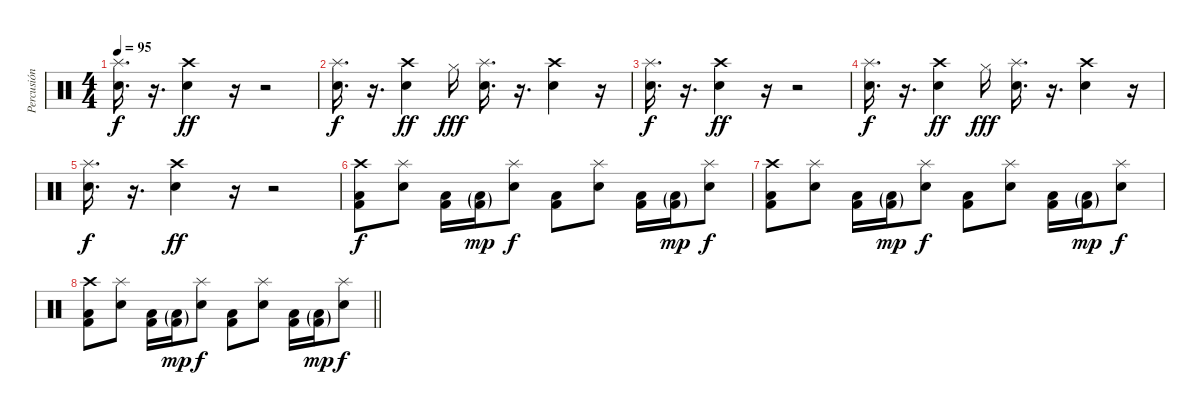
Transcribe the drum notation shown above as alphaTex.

\track ("Percusión" "Percusión") {instrument percussion}
\staff {score}
\articulation defaults
\ts (4 4)
\tempo 95
\clef neutral
\ks c
("Splash (hit)" "Electric Snare (hit)").16{d dy f} r.16{d} ("Crash high (hit)" "Electric Snare (hit)").4{dy ff} r.16 r.2 |
("Splash (hit)" "Electric Snare (hit)").16{d dy f} r.16{d} ("Crash high (hit)" "Electric Snare (hit)").4{dy ff} "Hi-Hat (closed)".16{dy fff} ("Splash (hit)" "Electric Snare (hit)").16{d} r.16{d} ("Crash high (hit)" "Electric Snare (hit)").4 r.16 |
("Splash (hit)" "Electric Snare (hit)").16{d dy f} r.16{d} ("Crash high (hit)" "Electric Snare (hit)").4{dy ff} r.16 r.2 |
("Splash (hit)" "Electric Snare (hit)").16{d dy f} r.16{d} ("Crash high (hit)" "Electric Snare (hit)").4{dy ff} "Hi-Hat (closed)".16{dy fff} ("Splash (hit)" "Electric Snare (hit)").16{d} r.16{d} ("Crash high (hit)" "Electric Snare (hit)").4 r.16 |
("Splash (hit)" "Electric Snare (hit)").16{d dy f} r.16{d} ("Crash high (hit)" "Electric Snare (hit)").4{dy ff} r.16 r.2 |
("Crash high (hit)" "Low Floor Tom (hit)" "Kick (hit) 2").8{dy f} ("Splash (hit)" "Electric Snare (hit)").8 ("Low Floor Tom (hit)" "Kick (hit) 2").16 ("Low Floor Tom (hit)"{g} "Kick (hit) 2"{g}).16{dy mp} ("Splash (hit)" "Electric Snare (hit)").8{dy f} ("Low Floor Tom (hit)" "Kick (hit) 2").8 ("Splash (hit)" "Electric Snare (hit)").8 ("Low Floor Tom (hit)" "Kick (hit) 2").16 ("Low Floor Tom (hit)"{g} "Kick (hit) 2"{g}).16{dy mp} ("Splash (hit)" "Electric Snare (hit)").8{dy f} |
("Crash high (hit)" "Low Floor Tom (hit)" "Kick (hit) 2").8 ("Splash (hit)" "Electric Snare (hit)").8 ("Low Floor Tom (hit)" "Kick (hit) 2").16 ("Low Floor Tom (hit)"{g} "Kick (hit) 2"{g}).16{dy mp} ("Splash (hit)" "Electric Snare (hit)").8{dy f} ("Low Floor Tom (hit)" "Kick (hit) 2").8 ("Splash (hit)" "Electric Snare (hit)").8 ("Low Floor Tom (hit)" "Kick (hit) 2").16 ("Low Floor Tom (hit)"{g} "Kick (hit) 2"{g}).16{dy mp} ("Splash (hit)" "Electric Snare (hit)").8{dy f} |
\barLineRight lightlight
("Crash high (hit)" "Low Floor Tom (hit)" "Kick (hit) 2").8 ("Splash (hit)" "Electric Snare (hit)").8 ("Low Floor Tom (hit)" "Kick (hit) 2").16 ("Low Floor Tom (hit)"{g} "Kick (hit) 2"{g}).16{dy mp} ("Splash (hit)" "Electric Snare (hit)").8{dy f} ("Low Floor Tom (hit)" "Kick (hit) 2").8 ("Splash (hit)" "Electric Snare (hit)").8 ("Low Floor Tom (hit)" "Kick (hit) 2").16 ("Low Floor Tom (hit)"{g} "Kick (hit) 2"{g}).16{dy mp} ("Splash (hit)" "Electric Snare (hit)").8{dy f}
